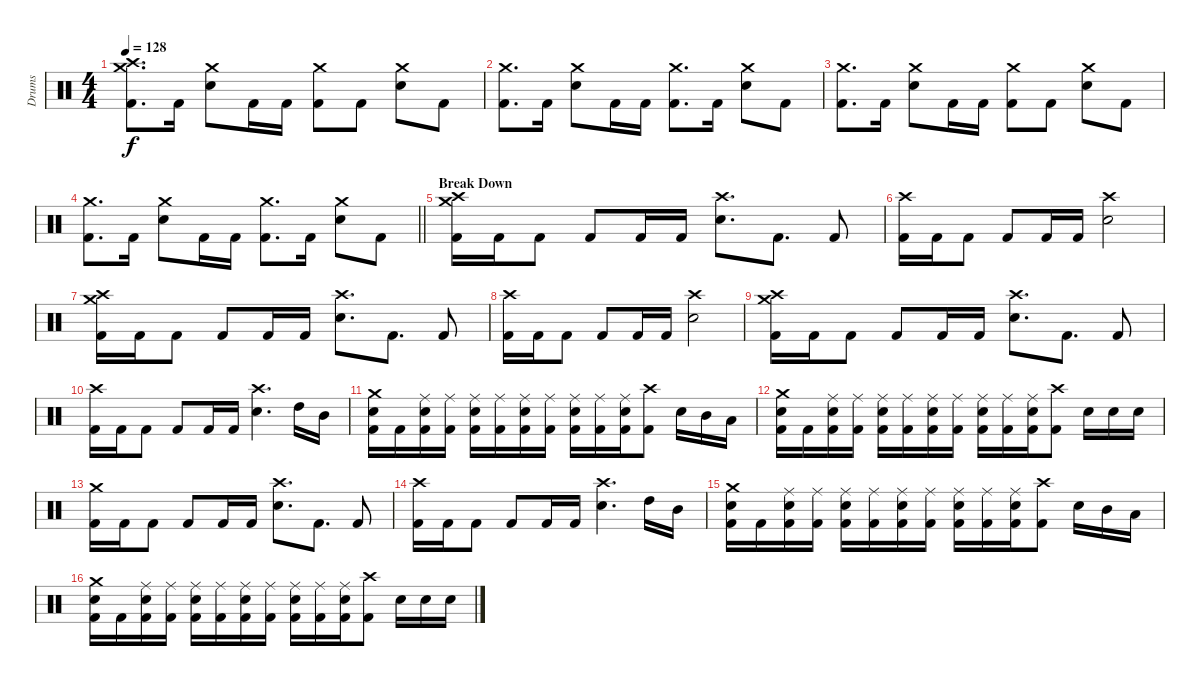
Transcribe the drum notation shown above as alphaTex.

\track ("Drums" "Drums") {instrument percussion}
\staff {score}
\articulation defaults
\ts (4 4)
\tempo 128
\clef neutral
\ks c
("Kick (hit) 2" "Crash high (hit)" "Crash medium (hit)").8{d dy f} "Kick (hit) 2".16 ("Snare (hit) 2" "Crash medium (hit)").8 "Kick (hit) 2".16 "Kick (hit) 2".16 ("Kick (hit) 2" "Crash medium (hit)").8 "Kick (hit) 2".8 ("Snare (hit) 2" "Crash medium (hit)").8 "Kick (hit) 2".8 |
("Kick (hit) 2" "Crash medium (hit)").8{d} "Kick (hit) 2".16 ("Snare (hit) 2" "Crash medium (hit)").8 "Kick (hit) 2".16 "Kick (hit) 2".16 ("Kick (hit) 2" "Crash medium (hit)").8{d} "Kick (hit) 2".16 ("Snare (hit) 2" "Crash medium (hit)").8 "Kick (hit) 2".8 |
("Kick (hit) 2" "Crash medium (hit)").8{d} "Kick (hit) 2".16 ("Snare (hit) 2" "Crash medium (hit)").8 "Kick (hit) 2".16 "Kick (hit) 2".16 ("Kick (hit) 2" "Crash medium (hit)").8 "Kick (hit) 2".8 ("Snare (hit) 2" "Crash medium (hit)").8 "Kick (hit) 2".8 |
\barLineRight lightlight
("Kick (hit) 2" "Crash medium (hit)").8{d} "Kick (hit) 2".16 ("Snare (hit) 2" "Crash medium (hit)").8 "Kick (hit) 2".16 "Kick (hit) 2".16 ("Kick (hit) 2" "Crash medium (hit)").8{d} "Kick (hit) 2".16 ("Snare (hit) 2" "Crash medium (hit)").8 "Kick (hit) 2".8 |
\section ("" "Break Down")
("Kick (hit) 2" "Crash high (hit)" "Crash medium (hit)").16 "Kick (hit) 2".16 "Kick (hit) 2".8 "Kick (hit) 2".8 "Kick (hit) 2".16 "Kick (hit) 2".16 ("Snare (hit) 2" "Crash high (hit)").8{d} "Kick (hit) 2".8{d} "Kick (hit) 2".8 |
("Kick (hit) 2" "Crash high (hit)").16 "Kick (hit) 2".16 "Kick (hit) 2".8 "Kick (hit) 2".8 "Kick (hit) 2".16 "Kick (hit) 2".16 ("Snare (hit) 2" "Crash high (hit)").2 |
("Kick (hit) 2" "Crash high (hit)" "Crash medium (hit)").16 "Kick (hit) 2".16 "Kick (hit) 2".8 "Kick (hit) 2".8 "Kick (hit) 2".16 "Kick (hit) 2".16 ("Snare (hit) 2" "Crash high (hit)").8{d} "Kick (hit) 2".8{d} "Kick (hit) 2".8 |
("Kick (hit) 2" "Crash high (hit)").16 "Kick (hit) 2".16 "Kick (hit) 2".8 "Kick (hit) 2".8 "Kick (hit) 2".16 "Kick (hit) 2".16 ("Snare (hit) 2" "Crash high (hit)").2 |
("Kick (hit) 2" "Crash high (hit)" "Crash medium (hit)").16 "Kick (hit) 2".16 "Kick (hit) 2".8 "Kick (hit) 2".8 "Kick (hit) 2".16 "Kick (hit) 2".16 ("Snare (hit) 2" "Crash high (hit)").8{d} "Kick (hit) 2".8{d} "Kick (hit) 2".8 |
("Kick (hit) 2" "Crash high (hit)").16 "Kick (hit) 2".16 "Kick (hit) 2".8 "Kick (hit) 2".8 "Kick (hit) 2".16 "Kick (hit) 2".16 ("Snare (hit) 2" "Crash high (hit)").4{d} "High Tom (hit)".16 "Mid Tom (hit)".16 |
("Kick (hit) 2" "Snare (hit) 2" "Crash medium (hit)").16 "Kick (hit) 2".16 ("Kick (hit) 2" "Snare (hit) 2" "Ride (middle)").16 ("Kick (hit) 2" "Ride (middle)").16 ("Kick (hit) 2" "Snare (hit) 2" "Ride (middle)").16 ("Kick (hit) 2" "Ride (middle)").16 ("Kick (hit) 2" "Snare (hit) 2" "Ride (middle)").16 ("Kick (hit) 2" "Ride (middle)").16 ("Kick (hit) 2" "Snare (hit) 2" "Ride (middle)").16 ("Kick (hit) 2" "Ride (middle)").16 ("Kick (hit) 2" "Snare (hit) 2" "Ride (middle)").16 ("Kick (hit) 2" "Crash high (hit)").8 "Snare (hit) 2".16 "Mid Tom (hit)".16 "Low Tom (hit)".16 |
("Kick (hit) 2" "Snare (hit) 2" "Crash medium (hit)").16 "Kick (hit) 2".16 ("Kick (hit) 2" "Snare (hit) 2" "Ride (middle)").16 ("Kick (hit) 2" "Ride (middle)").16 ("Kick (hit) 2" "Snare (hit) 2" "Ride (middle)").16 ("Kick (hit) 2" "Ride (middle)").16 ("Kick (hit) 2" "Snare (hit) 2" "Ride (middle)").16 ("Kick (hit) 2" "Ride (middle)").16 ("Kick (hit) 2" "Snare (hit) 2" "Ride (middle)").16 ("Kick (hit) 2" "Ride (middle)").16 ("Kick (hit) 2" "Snare (hit) 2" "Ride (middle)").16 ("Kick (hit) 2" "Crash high (hit)").8 "Snare (hit) 2".16 "Snare (hit) 2".16 "Snare (hit) 2".16 |
("Kick (hit) 2" "Crash medium (hit)").16 "Kick (hit) 2".16 "Kick (hit) 2".8 "Kick (hit) 2".8 "Kick (hit) 2".16 "Kick (hit) 2".16 ("Snare (hit) 2" "Crash high (hit)").8{d} "Kick (hit) 2".8{d} "Kick (hit) 2".8 |
("Kick (hit) 2" "Crash high (hit)").16 "Kick (hit) 2".16 "Kick (hit) 2".8 "Kick (hit) 2".8 "Kick (hit) 2".16 "Kick (hit) 2".16 ("Snare (hit) 2" "Crash high (hit)").4{d} "High Tom (hit)".16 "Mid Tom (hit)".16 |
("Kick (hit) 2" "Snare (hit) 2" "Crash medium (hit)").16 "Kick (hit) 2".16 ("Kick (hit) 2" "Snare (hit) 2" "Ride (middle)").16 ("Kick (hit) 2" "Ride (middle)").16 ("Kick (hit) 2" "Snare (hit) 2" "Ride (middle)").16 ("Kick (hit) 2" "Ride (middle)").16 ("Kick (hit) 2" "Snare (hit) 2" "Ride (middle)").16 ("Kick (hit) 2" "Ride (middle)").16 ("Kick (hit) 2" "Snare (hit) 2" "Ride (middle)").16 ("Kick (hit) 2" "Ride (middle)").16 ("Kick (hit) 2" "Snare (hit) 2" "Ride (middle)").16 ("Kick (hit) 2" "Crash high (hit)").8 "Snare (hit) 2".16 "Mid Tom (hit)".16 "Low Tom (hit)".16 |
("Kick (hit) 2" "Snare (hit) 2" "Crash medium (hit)").16 "Kick (hit) 2".16 ("Kick (hit) 2" "Snare (hit) 2" "Ride (middle)").16 ("Kick (hit) 2" "Ride (middle)").16 ("Kick (hit) 2" "Snare (hit) 2" "Ride (middle)").16 ("Kick (hit) 2" "Ride (middle)").16 ("Kick (hit) 2" "Snare (hit) 2" "Ride (middle)").16 ("Kick (hit) 2" "Ride (middle)").16 ("Kick (hit) 2" "Snare (hit) 2" "Ride (middle)").16 ("Kick (hit) 2" "Ride (middle)").16 ("Kick (hit) 2" "Snare (hit) 2" "Ride (middle)").16 ("Kick (hit) 2" "Crash high (hit)").8 "Snare (hit) 2".16 "Snare (hit) 2".16 "Snare (hit) 2".16
